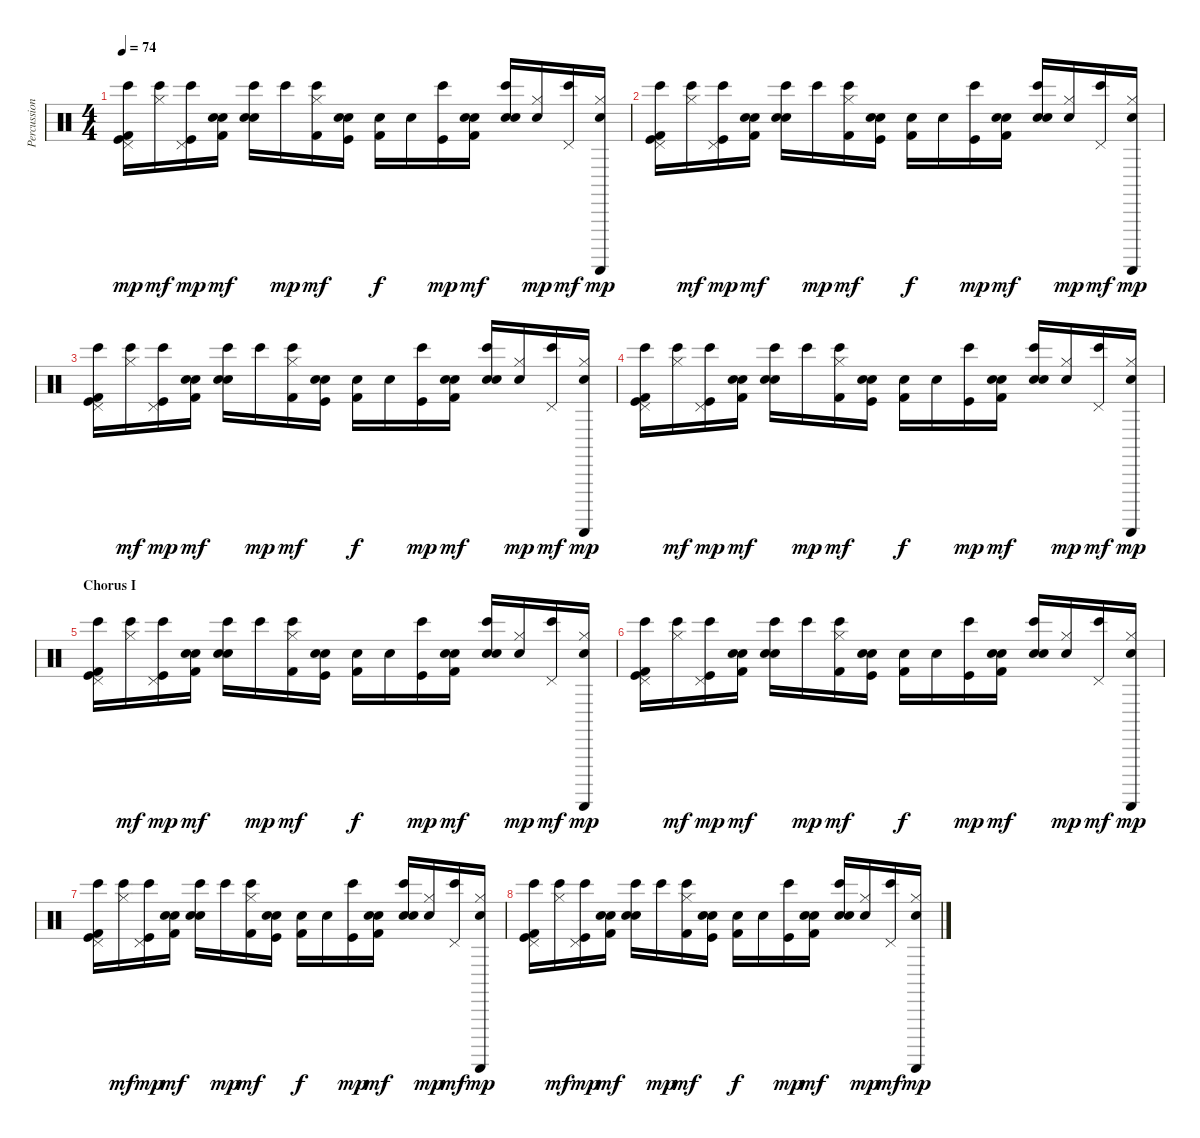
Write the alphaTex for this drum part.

\track ("Percussion" "Percussion") {instrument percussion}
\staff {score}
\articulation defaults
\ts (4 4)
\tempo 74
\clef neutral
\ks c
("Bongo High (hit)" "Pedal Hi-Hat (hit)" "Kick (hit) 2" "Kick (hit)").16{dy mp} ("Bongo High (hit)" "Hi-Hat (closed)").16{dy mf} ("Bongo High (hit)" "Pedal Hi-Hat (hit)" "Kick (hit)").16{dy mp} ("Snare (hit)" "Electric Snare (hit)" "Kick (hit) 2").16{dy mf} ("Bongo High (hit)" "Electric Snare (hit)" "Snare (hit) 2").16 "Bongo High (hit)".16{dy mp} ("Bongo High (hit)" "Hi-Hat (closed)" "Kick (hit) 2").16{dy mf} ("Snare (hit)" "Electric Snare (hit)" "Kick (hit)").16 ("Snare (hit)" "Kick (hit) 2").16{dy f} "Snare (hit)".16 ("Bongo High (hit)" "Kick (hit)").16{dy mp} ("Snare (hit)" "Electric Snare (hit)" "Kick (hit) 2").16{dy mf} ("Bongo High (hit)" "Electric Snare (hit)" "Snare (hit) 2").16 ("Snare (hit)" "Hi-Hat (closed)").16{dy mp} ("Bongo High (hit)" "Pedal Hi-Hat (hit)").16{dy mf} ("Snare (hit)" "Guiro (scrap-return)" "Hi-Hat (closed)").16{dy mp} |
("Bongo High (hit)" "Pedal Hi-Hat (hit)" "Kick (hit) 2" "Kick (hit)").16 ("Bongo High (hit)" "Hi-Hat (closed)").16{dy mf} ("Bongo High (hit)" "Pedal Hi-Hat (hit)" "Kick (hit)").16{dy mp} ("Snare (hit)" "Electric Snare (hit)" "Kick (hit) 2").16{dy mf} ("Bongo High (hit)" "Electric Snare (hit)" "Snare (hit) 2").16 "Bongo High (hit)".16{dy mp} ("Bongo High (hit)" "Hi-Hat (closed)" "Kick (hit) 2").16{dy mf} ("Snare (hit)" "Electric Snare (hit)" "Kick (hit)").16 ("Snare (hit)" "Kick (hit) 2").16{dy f} "Snare (hit)".16 ("Bongo High (hit)" "Kick (hit)").16{dy mp} ("Snare (hit)" "Electric Snare (hit)" "Kick (hit) 2").16{dy mf} ("Bongo High (hit)" "Electric Snare (hit)" "Snare (hit) 2").16 ("Snare (hit)" "Hi-Hat (closed)").16{dy mp} ("Bongo High (hit)" "Pedal Hi-Hat (hit)").16{dy mf} ("Snare (hit)" "Guiro (scrap-return)" "Hi-Hat (closed)").16{dy mp} |
("Bongo High (hit)" "Pedal Hi-Hat (hit)" "Kick (hit) 2" "Kick (hit)").16 ("Bongo High (hit)" "Hi-Hat (closed)").16{dy mf} ("Bongo High (hit)" "Pedal Hi-Hat (hit)" "Kick (hit)").16{dy mp} ("Snare (hit)" "Electric Snare (hit)" "Kick (hit) 2").16{dy mf} ("Bongo High (hit)" "Electric Snare (hit)" "Snare (hit) 2").16 "Bongo High (hit)".16{dy mp} ("Bongo High (hit)" "Hi-Hat (closed)" "Kick (hit) 2").16{dy mf} ("Snare (hit)" "Electric Snare (hit)" "Kick (hit)").16 ("Snare (hit)" "Kick (hit) 2").16{dy f} "Snare (hit)".16 ("Bongo High (hit)" "Kick (hit)").16{dy mp} ("Snare (hit)" "Electric Snare (hit)" "Kick (hit) 2").16{dy mf} ("Bongo High (hit)" "Electric Snare (hit)" "Snare (hit) 2").16 ("Snare (hit)" "Hi-Hat (closed)").16{dy mp} ("Bongo High (hit)" "Pedal Hi-Hat (hit)").16{dy mf} ("Snare (hit)" "Guiro (scrap-return)" "Hi-Hat (closed)").16{dy mp} |
("Bongo High (hit)" "Pedal Hi-Hat (hit)" "Kick (hit) 2" "Kick (hit)").16 ("Bongo High (hit)" "Hi-Hat (closed)").16{dy mf} ("Bongo High (hit)" "Pedal Hi-Hat (hit)" "Kick (hit)").16{dy mp} ("Snare (hit)" "Electric Snare (hit)" "Kick (hit) 2").16{dy mf} ("Bongo High (hit)" "Electric Snare (hit)" "Snare (hit) 2").16 "Bongo High (hit)".16{dy mp} ("Bongo High (hit)" "Hi-Hat (closed)" "Kick (hit) 2").16{dy mf} ("Snare (hit)" "Electric Snare (hit)" "Kick (hit)").16 ("Snare (hit)" "Kick (hit) 2").16{dy f} "Snare (hit)".16 ("Bongo High (hit)" "Kick (hit)").16{dy mp} ("Snare (hit)" "Electric Snare (hit)" "Kick (hit) 2").16{dy mf} ("Bongo High (hit)" "Electric Snare (hit)" "Snare (hit) 2").16 ("Snare (hit)" "Hi-Hat (closed)").16{dy mp} ("Bongo High (hit)" "Pedal Hi-Hat (hit)").16{dy mf} ("Snare (hit)" "Guiro (scrap-return)" "Hi-Hat (closed)").16{dy mp} |
\section ("" "Chorus I")
("Bongo High (hit)" "Pedal Hi-Hat (hit)" "Kick (hit) 2" "Kick (hit)").16 ("Bongo High (hit)" "Hi-Hat (closed)").16{dy mf} ("Bongo High (hit)" "Pedal Hi-Hat (hit)" "Kick (hit)").16{dy mp} ("Snare (hit)" "Electric Snare (hit)" "Kick (hit) 2").16{dy mf} ("Bongo High (hit)" "Electric Snare (hit)" "Snare (hit) 2").16 "Bongo High (hit)".16{dy mp} ("Bongo High (hit)" "Hi-Hat (closed)" "Kick (hit) 2").16{dy mf} ("Snare (hit)" "Electric Snare (hit)" "Kick (hit)").16 ("Snare (hit)" "Kick (hit) 2").16{dy f} "Snare (hit)".16 ("Bongo High (hit)" "Kick (hit)").16{dy mp} ("Snare (hit)" "Electric Snare (hit)" "Kick (hit) 2").16{dy mf} ("Bongo High (hit)" "Electric Snare (hit)" "Snare (hit) 2").16 ("Snare (hit)" "Hi-Hat (closed)").16{dy mp} ("Bongo High (hit)" "Pedal Hi-Hat (hit)").16{dy mf} ("Snare (hit)" "Guiro (scrap-return)" "Hi-Hat (closed)").16{dy mp} |
("Bongo High (hit)" "Pedal Hi-Hat (hit)" "Kick (hit) 2" "Kick (hit)").16 ("Bongo High (hit)" "Hi-Hat (closed)").16{dy mf} ("Bongo High (hit)" "Pedal Hi-Hat (hit)" "Kick (hit)").16{dy mp} ("Snare (hit)" "Electric Snare (hit)" "Kick (hit) 2").16{dy mf} ("Bongo High (hit)" "Electric Snare (hit)" "Snare (hit) 2").16 "Bongo High (hit)".16{dy mp} ("Bongo High (hit)" "Hi-Hat (closed)" "Kick (hit) 2").16{dy mf} ("Snare (hit)" "Electric Snare (hit)" "Kick (hit)").16 ("Snare (hit)" "Kick (hit) 2").16{dy f} "Snare (hit)".16 ("Bongo High (hit)" "Kick (hit)").16{dy mp} ("Snare (hit)" "Electric Snare (hit)" "Kick (hit) 2").16{dy mf} ("Bongo High (hit)" "Electric Snare (hit)" "Snare (hit) 2").16 ("Snare (hit)" "Hi-Hat (closed)").16{dy mp} ("Bongo High (hit)" "Pedal Hi-Hat (hit)").16{dy mf} ("Snare (hit)" "Guiro (scrap-return)" "Hi-Hat (closed)").16{dy mp} |
("Bongo High (hit)" "Pedal Hi-Hat (hit)" "Kick (hit) 2" "Kick (hit)").16 ("Bongo High (hit)" "Hi-Hat (closed)").16{dy mf} ("Bongo High (hit)" "Pedal Hi-Hat (hit)" "Kick (hit)").16{dy mp} ("Snare (hit)" "Electric Snare (hit)" "Kick (hit) 2").16{dy mf} ("Bongo High (hit)" "Electric Snare (hit)" "Snare (hit) 2").16 "Bongo High (hit)".16{dy mp} ("Bongo High (hit)" "Hi-Hat (closed)" "Kick (hit) 2").16{dy mf} ("Snare (hit)" "Electric Snare (hit)" "Kick (hit)").16 ("Snare (hit)" "Kick (hit) 2").16{dy f} "Snare (hit)".16 ("Bongo High (hit)" "Kick (hit)").16{dy mp} ("Snare (hit)" "Electric Snare (hit)" "Kick (hit) 2").16{dy mf} ("Bongo High (hit)" "Electric Snare (hit)" "Snare (hit) 2").16 ("Snare (hit)" "Hi-Hat (closed)").16{dy mp} ("Bongo High (hit)" "Pedal Hi-Hat (hit)").16{dy mf} ("Snare (hit)" "Guiro (scrap-return)" "Hi-Hat (closed)").16{dy mp} |
("Bongo High (hit)" "Pedal Hi-Hat (hit)" "Kick (hit) 2" "Kick (hit)").16 ("Bongo High (hit)" "Hi-Hat (closed)").16{dy mf} ("Bongo High (hit)" "Pedal Hi-Hat (hit)" "Kick (hit)").16{dy mp} ("Snare (hit)" "Electric Snare (hit)" "Kick (hit) 2").16{dy mf} ("Bongo High (hit)" "Electric Snare (hit)" "Snare (hit) 2").16 "Bongo High (hit)".16{dy mp} ("Bongo High (hit)" "Hi-Hat (closed)" "Kick (hit) 2").16{dy mf} ("Snare (hit)" "Electric Snare (hit)" "Kick (hit)").16 ("Snare (hit)" "Kick (hit) 2").16{dy f} "Snare (hit)".16 ("Bongo High (hit)" "Kick (hit)").16{dy mp} ("Snare (hit)" "Electric Snare (hit)" "Kick (hit) 2").16{dy mf} ("Bongo High (hit)" "Electric Snare (hit)" "Snare (hit) 2").16 ("Snare (hit)" "Hi-Hat (closed)").16{dy mp} ("Bongo High (hit)" "Pedal Hi-Hat (hit)").16{dy mf} ("Snare (hit)" "Guiro (scrap-return)" "Hi-Hat (closed)").16{dy mp}
